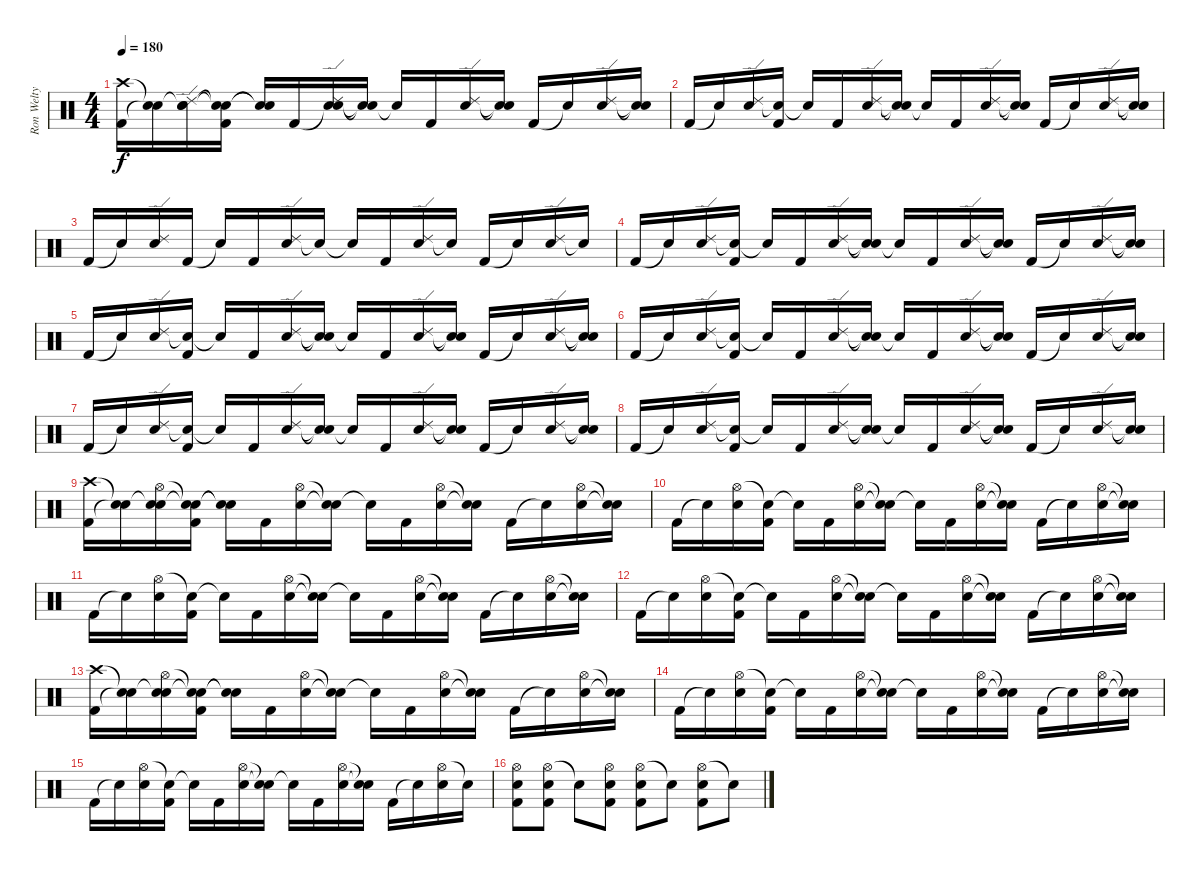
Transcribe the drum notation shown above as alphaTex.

\track ("Ron Welty (drums)" "Ron Welty ") {instrument percussion}
\staff {score}
\articulation defaults
\ts (4 4)
\tempo 180
\clef neutral
\ks c
("Crash high (hit)" "Kick (hit) 2").16{dy f} ("Snare (hit)"{t} "Snare (hit)"{t}).16 ("Snare (hit)"{t} "Ride (edge) 2" "Electric Snare (hit)").16 ("Snare (hit)"{t} "Snare (hit)"{t} "Kick (hit) 2").16 ("Snare (hit)"{t} "Snare (hit)"{t}).16 "Kick (hit) 2".16 ("Snare (hit)"{t} "Ride (edge) 2" "Electric Snare (hit)").16 ("Snare (hit)"{t} "Snare (hit)"{t}).16 "Snare (hit)"{t}.16 "Kick (hit) 2".16 ("Ride (edge) 2" "Electric Snare (hit)").16 ("Snare (hit)"{t} "Snare (hit)"{t}).16 "Kick (hit) 2".16 "Snare (hit)"{t}.16 ("Ride (edge) 2" "Electric Snare (hit)").16 ("Snare (hit)"{t} "Snare (hit)"{t}).16 |
"Kick (hit) 2".16 "Snare (hit)"{t}.16 ("Ride (edge) 2" "Electric Snare (hit)").16 ("Snare (hit)"{t} "Kick (hit) 2").16 "Snare (hit)"{t}.16 "Kick (hit) 2".16 ("Ride (edge) 2" "Electric Snare (hit)").16 ("Snare (hit)"{t} "Snare (hit)"{t}).16 "Snare (hit)"{t}.16 "Kick (hit) 2".16 ("Ride (edge) 2" "Electric Snare (hit)").16 ("Snare (hit)"{t} "Snare (hit)"{t}).16 "Kick (hit) 2".16 "Snare (hit)"{t}.16 ("Ride (edge) 2" "Electric Snare (hit)").16 ("Snare (hit)"{t} "Snare (hit)"{t}).16 |
"Kick (hit) 2".16 "Snare (hit)"{t}.16 ("Ride (edge) 2" "Electric Snare (hit)").16 "Kick (hit) 2".16 "Snare (hit)"{t}.16 "Kick (hit) 2".16 ("Ride (edge) 2" "Electric Snare (hit)").16 "Snare (hit)"{t}.16 "Snare (hit)"{t}.16 "Kick (hit) 2".16 ("Ride (edge) 2" "Electric Snare (hit)").16 "Snare (hit)"{t}.16 "Kick (hit) 2".16 "Snare (hit)"{t}.16 ("Ride (edge) 2" "Electric Snare (hit)").16 "Snare (hit)"{t}.16 |
"Kick (hit) 2".16 "Snare (hit)"{t}.16 ("Ride (edge) 2" "Electric Snare (hit)").16 ("Snare (hit)"{t} "Kick (hit) 2").16 "Snare (hit)"{t}.16 "Kick (hit) 2".16 ("Ride (edge) 2" "Electric Snare (hit)").16 ("Snare (hit)"{t} "Snare (hit)"{t}).16 "Snare (hit)"{t}.16 "Kick (hit) 2".16 ("Ride (edge) 2" "Electric Snare (hit)").16 ("Snare (hit)"{t} "Snare (hit)"{t}).16 "Kick (hit) 2".16 "Snare (hit)"{t}.16 ("Ride (edge) 2" "Electric Snare (hit)").16 ("Snare (hit)"{t} "Snare (hit)"{t}).16 |
"Kick (hit) 2".16 "Snare (hit)"{t}.16 ("Ride (edge) 2" "Electric Snare (hit)").16 ("Snare (hit)"{t} "Kick (hit) 2").16 "Snare (hit)"{t}.16 "Kick (hit) 2".16 ("Ride (edge) 2" "Electric Snare (hit)").16 ("Snare (hit)"{t} "Snare (hit)"{t}).16 "Snare (hit)"{t}.16 "Kick (hit) 2".16 ("Ride (edge) 2" "Electric Snare (hit)").16 ("Snare (hit)"{t} "Snare (hit)"{t}).16 "Kick (hit) 2".16 "Snare (hit)"{t}.16 ("Ride (edge) 2" "Electric Snare (hit)").16 ("Snare (hit)"{t} "Snare (hit)"{t}).16 |
"Kick (hit) 2".16 "Snare (hit)"{t}.16 ("Ride (edge) 2" "Electric Snare (hit)").16 ("Snare (hit)"{t} "Kick (hit) 2").16 "Snare (hit)"{t}.16 "Kick (hit) 2".16 ("Ride (edge) 2" "Electric Snare (hit)").16 ("Snare (hit)"{t} "Snare (hit)"{t}).16 "Snare (hit)"{t}.16 "Kick (hit) 2".16 ("Ride (edge) 2" "Electric Snare (hit)").16 ("Snare (hit)"{t} "Snare (hit)"{t}).16 "Kick (hit) 2".16 "Snare (hit)"{t}.16 ("Ride (edge) 2" "Electric Snare (hit)").16 ("Snare (hit)"{t} "Snare (hit)"{t}).16 |
"Kick (hit) 2".16 "Snare (hit)"{t}.16 ("Ride (edge) 2" "Electric Snare (hit)").16 ("Snare (hit)"{t} "Kick (hit) 2").16 "Snare (hit)"{t}.16 "Kick (hit) 2".16 ("Ride (edge) 2" "Electric Snare (hit)").16 ("Snare (hit)"{t} "Snare (hit)"{t}).16 "Snare (hit)"{t}.16 "Kick (hit) 2".16 ("Ride (edge) 2" "Electric Snare (hit)").16 ("Snare (hit)"{t} "Snare (hit)"{t}).16 "Kick (hit) 2".16 "Snare (hit)"{t}.16 ("Ride (edge) 2" "Electric Snare (hit)").16 ("Snare (hit)"{t} "Snare (hit)"{t}).16 |
"Kick (hit) 2".16 "Snare (hit)"{t}.16 ("Ride (edge) 2" "Electric Snare (hit)").16 ("Snare (hit)"{t} "Kick (hit) 2").16 "Snare (hit)"{t}.16 "Kick (hit) 2".16 ("Ride (edge) 2" "Electric Snare (hit)").16 ("Snare (hit)"{t} "Snare (hit)"{t}).16 "Snare (hit)"{t}.16 "Kick (hit) 2".16 ("Ride (edge) 2" "Electric Snare (hit)").16 ("Snare (hit)"{t} "Snare (hit)"{t}).16 "Kick (hit) 2".16 "Snare (hit)"{t}.16 ("Ride (edge) 2" "Electric Snare (hit)").16 ("Snare (hit)"{t} "Snare (hit)"{t}).16 |
("Crash high (hit)" "Kick (hit) 2").16 ("Snare (hit)"{t} "Snare (hit)"{t}).16 ("Snare (hit)"{t} "Hi-Hat (open)" "Electric Snare (hit)").16 ("Snare (hit)"{t} "Snare (hit)"{t} "Kick (hit) 2").16 ("Snare (hit)"{t} "Snare (hit)"{t}).16 "Kick (hit) 2".16 ("Hi-Hat (open)" "Electric Snare (hit)").16 ("Snare (hit)"{t} "Snare (hit)"{t}).16 "Snare (hit)"{t}.16 "Kick (hit) 2".16 ("Hi-Hat (open)" "Electric Snare (hit)").16 ("Snare (hit)"{t} "Snare (hit)"{t}).16 "Kick (hit) 2".16 "Snare (hit)"{t}.16 ("Hi-Hat (open)" "Electric Snare (hit)").16 ("Snare (hit)"{t} "Snare (hit)"{t}).16 |
"Kick (hit) 2".16 "Snare (hit)"{t}.16 ("Hi-Hat (open)" "Electric Snare (hit)").16 ("Snare (hit)"{t} "Kick (hit) 2").16 "Snare (hit)"{t}.16 "Kick (hit) 2".16 ("Hi-Hat (open)" "Electric Snare (hit)").16 ("Snare (hit)"{t} "Snare (hit)"{t}).16 "Snare (hit)"{t}.16 "Kick (hit) 2".16 ("Hi-Hat (open)" "Electric Snare (hit)").16 ("Snare (hit)"{t} "Snare (hit)"{t}).16 "Kick (hit) 2".16 "Snare (hit)"{t}.16 ("Hi-Hat (open)" "Electric Snare (hit)").16 ("Snare (hit)"{t} "Snare (hit)"{t}).16 |
"Kick (hit) 2".16 "Snare (hit)"{t}.16 ("Hi-Hat (open)" "Electric Snare (hit)").16 ("Snare (hit)"{t} "Kick (hit) 2").16 "Snare (hit)"{t}.16 "Kick (hit) 2".16 ("Hi-Hat (open)" "Electric Snare (hit)").16 ("Snare (hit)"{t} "Snare (hit)"{t}).16 "Snare (hit)"{t}.16 "Kick (hit) 2".16 ("Hi-Hat (open)" "Electric Snare (hit)").16 ("Snare (hit)"{t} "Snare (hit)"{t}).16 "Kick (hit) 2".16 "Snare (hit)"{t}.16 ("Hi-Hat (open)" "Electric Snare (hit)").16 ("Snare (hit)"{t} "Snare (hit)"{t}).16 |
"Kick (hit) 2".16 "Snare (hit)"{t}.16 ("Hi-Hat (open)" "Electric Snare (hit)").16 ("Snare (hit)"{t} "Kick (hit) 2").16 "Snare (hit)"{t}.16 "Kick (hit) 2".16 ("Hi-Hat (open)" "Electric Snare (hit)").16 ("Snare (hit)"{t} "Snare (hit)"{t}).16 "Snare (hit)"{t}.16 "Kick (hit) 2".16 ("Hi-Hat (open)" "Electric Snare (hit)").16 ("Snare (hit)"{t} "Snare (hit)"{t}).16 "Kick (hit) 2".16 "Snare (hit)"{t}.16 ("Hi-Hat (open)" "Electric Snare (hit)").16 ("Snare (hit)"{t} "Snare (hit)"{t}).16 |
("Crash high (hit)" "Kick (hit) 2").16 ("Snare (hit)"{t} "Snare (hit)"{t}).16 ("Snare (hit)"{t} "Hi-Hat (open)" "Electric Snare (hit)").16 ("Snare (hit)"{t} "Snare (hit)"{t} "Kick (hit) 2").16 ("Snare (hit)"{t} "Snare (hit)"{t}).16 "Kick (hit) 2".16 ("Hi-Hat (open)" "Electric Snare (hit)").16 ("Snare (hit)"{t} "Snare (hit)"{t}).16 "Snare (hit)"{t}.16 "Kick (hit) 2".16 ("Hi-Hat (open)" "Electric Snare (hit)").16 ("Snare (hit)"{t} "Snare (hit)"{t}).16 "Kick (hit) 2".16 "Snare (hit)"{t}.16 ("Hi-Hat (open)" "Electric Snare (hit)").16 ("Snare (hit)"{t} "Snare (hit)"{t}).16 |
"Kick (hit) 2".16 "Snare (hit)"{t}.16 ("Hi-Hat (open)" "Electric Snare (hit)").16 ("Snare (hit)"{t} "Kick (hit) 2").16 "Snare (hit)"{t}.16 "Kick (hit) 2".16 ("Hi-Hat (open)" "Electric Snare (hit)").16 ("Snare (hit)"{t} "Snare (hit)"{t}).16 "Snare (hit)"{t}.16 "Kick (hit) 2".16 ("Hi-Hat (open)" "Electric Snare (hit)").16 ("Snare (hit)"{t} "Snare (hit)"{t}).16 "Kick (hit) 2".16 "Snare (hit)"{t}.16 ("Hi-Hat (open)" "Electric Snare (hit)").16 ("Snare (hit)"{t} "Snare (hit)"{t}).16 |
"Kick (hit) 2".16 "Snare (hit)"{t}.16 ("Hi-Hat (open)" "Electric Snare (hit)").16 ("Snare (hit)"{t} "Kick (hit) 2").16 "Snare (hit)"{t}.16 "Kick (hit) 2".16 ("Hi-Hat (open)" "Electric Snare (hit)").16 ("Snare (hit)"{t} "Snare (hit)"{t}).16 "Snare (hit)"{t}.16 "Kick (hit) 2".16 ("Hi-Hat (open)" "Electric Snare (hit)").16 ("Snare (hit)"{t} "Snare (hit)"{t}).16 "Kick (hit) 2".16 "Snare (hit)"{t}.16 ("Hi-Hat (open)" "Electric Snare (hit)").16 "Snare (hit)"{t}.16 |
("Hi-Hat (open)" "Electric Snare (hit)" "Kick (hit) 2").8 ("Hi-Hat (open)" "Electric Snare (hit)" "Kick (hit) 2").8 "Snare (hit)"{t}.8 ("Hi-Hat (open)" "Electric Snare (hit)" "Kick (hit) 2").8 ("Hi-Hat (open)" "Electric Snare (hit)" "Kick (hit) 2").8 "Snare (hit)"{t}.8 ("Hi-Hat (open)" "Electric Snare (hit)" "Kick (hit) 2").8 "Snare (hit)"{t}.8
